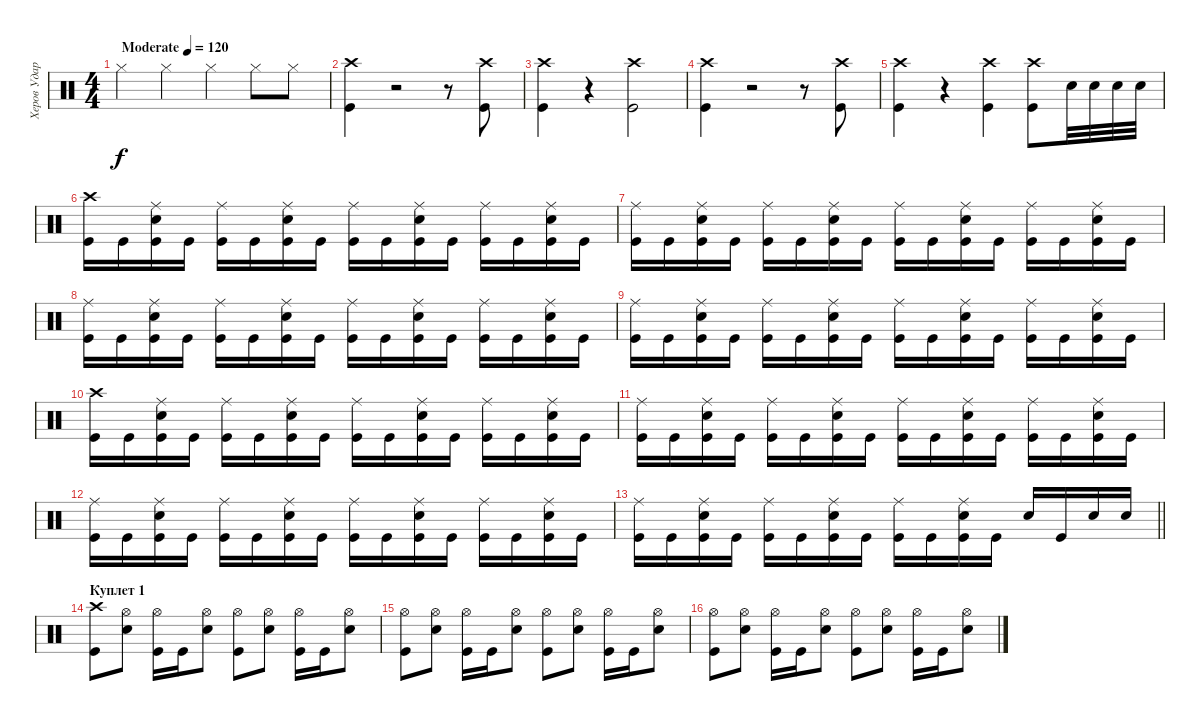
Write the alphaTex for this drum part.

\track ("Херов Ударник" "Херов Удар") {instrument percussion}
\staff {score}
\articulation defaults
\ts (4 4)
\tempo (120 "Moderate")
\clef neutral
\ks c "Hi-Hat (closed)".4{dy f} "Hi-Hat (closed)".4 "Hi-Hat (closed)".4 "Hi-Hat (closed)".8 "Hi-Hat (closed)".8
|
("Kick (hit)" "Crash high (hit)").4 r.2 r.8 ("Kick (hit)" "Crash high (hit)").8 |
("Kick (hit)" "Crash high (hit)").4 r.4 ("Kick (hit)" "Crash high (hit)").2 |
("Kick (hit)" "Crash high (hit)").4 r.2 r.8 ("Kick (hit)" "Crash high (hit)").8 |
("Kick (hit)" "Crash high (hit)").4 r.4 ("Kick (hit)" "Crash high (hit)").4 ("Kick (hit)" "Crash high (hit)").8 "Electric Snare (hit)".32 "Electric Snare (hit)".32 "Electric Snare (hit)".32 "Electric Snare (hit)".32 |
("Crash high (hit)" "Kick (hit)").16 "Kick (hit)".16 ("Ride (middle)" "Electric Snare (hit)" "Kick (hit)").16 "Kick (hit)".16 ("Ride (middle)" "Kick (hit)").16 "Kick (hit)".16 ("Ride (middle)" "Electric Snare (hit)" "Kick (hit)").16 "Kick (hit)".16 ("Ride (middle)" "Kick (hit)").16 "Kick (hit)".16 ("Ride (middle)" "Electric Snare (hit)" "Kick (hit)").16 "Kick (hit)".16 ("Ride (middle)" "Kick (hit)").16 "Kick (hit)".16 ("Ride (middle)" "Electric Snare (hit)" "Kick (hit)").16 "Kick (hit)".16 |
("Ride (middle)" "Kick (hit)").16 "Kick (hit)".16 ("Ride (middle)" "Electric Snare (hit)" "Kick (hit)").16 "Kick (hit)".16 ("Ride (middle)" "Kick (hit)").16 "Kick (hit)".16 ("Ride (middle)" "Electric Snare (hit)" "Kick (hit)").16 "Kick (hit)".16 ("Ride (middle)" "Kick (hit)").16 "Kick (hit)".16 ("Ride (middle)" "Electric Snare (hit)" "Kick (hit)").16 "Kick (hit)".16 ("Ride (middle)" "Kick (hit)").16 "Kick (hit)".16 ("Ride (middle)" "Electric Snare (hit)" "Kick (hit)").16 "Kick (hit)".16 |
("Ride (middle)" "Kick (hit)").16 "Kick (hit)".16 ("Ride (middle)" "Electric Snare (hit)" "Kick (hit)").16 "Kick (hit)".16 ("Ride (middle)" "Kick (hit)").16 "Kick (hit)".16 ("Ride (middle)" "Electric Snare (hit)" "Kick (hit)").16 "Kick (hit)".16 ("Ride (middle)" "Kick (hit)").16 "Kick (hit)".16 ("Ride (middle)" "Electric Snare (hit)" "Kick (hit)").16 "Kick (hit)".16 ("Ride (middle)" "Kick (hit)").16 "Kick (hit)".16 ("Ride (middle)" "Electric Snare (hit)" "Kick (hit)").16 "Kick (hit)".16 |
("Ride (middle)" "Kick (hit)").16 "Kick (hit)".16 ("Ride (middle)" "Electric Snare (hit)" "Kick (hit)").16 "Kick (hit)".16 ("Ride (middle)" "Kick (hit)").16 "Kick (hit)".16 ("Ride (middle)" "Electric Snare (hit)" "Kick (hit)").16 "Kick (hit)".16 ("Ride (middle)" "Kick (hit)").16 "Kick (hit)".16 ("Ride (middle)" "Electric Snare (hit)" "Kick (hit)").16 "Kick (hit)".16 ("Ride (middle)" "Kick (hit)").16 "Kick (hit)".16 ("Ride (middle)" "Electric Snare (hit)" "Kick (hit)").16 "Kick (hit)".16 |
("Crash high (hit)" "Kick (hit)").16 "Kick (hit)".16 ("Ride (middle)" "Electric Snare (hit)" "Kick (hit)").16 "Kick (hit)".16 ("Ride (middle)" "Kick (hit)").16 "Kick (hit)".16 ("Ride (middle)" "Electric Snare (hit)" "Kick (hit)").16 "Kick (hit)".16 ("Ride (middle)" "Kick (hit)").16 "Kick (hit)".16 ("Ride (middle)" "Electric Snare (hit)" "Kick (hit)").16 "Kick (hit)".16 ("Ride (middle)" "Kick (hit)").16 "Kick (hit)".16 ("Ride (middle)" "Electric Snare (hit)" "Kick (hit)").16 "Kick (hit)".16 |
("Ride (middle)" "Kick (hit)").16 "Kick (hit)".16 ("Ride (middle)" "Electric Snare (hit)" "Kick (hit)").16 "Kick (hit)".16 ("Ride (middle)" "Kick (hit)").16 "Kick (hit)".16 ("Ride (middle)" "Electric Snare (hit)" "Kick (hit)").16 "Kick (hit)".16 ("Ride (middle)" "Kick (hit)").16 "Kick (hit)".16 ("Ride (middle)" "Electric Snare (hit)" "Kick (hit)").16 "Kick (hit)".16 ("Ride (middle)" "Kick (hit)").16 "Kick (hit)".16 ("Ride (middle)" "Electric Snare (hit)" "Kick (hit)").16 "Kick (hit)".16 |
("Ride (middle)" "Kick (hit)").16 "Kick (hit)".16 ("Ride (middle)" "Electric Snare (hit)" "Kick (hit)").16 "Kick (hit)".16 ("Ride (middle)" "Kick (hit)").16 "Kick (hit)".16 ("Ride (middle)" "Electric Snare (hit)" "Kick (hit)").16 "Kick (hit)".16 ("Ride (middle)" "Kick (hit)").16 "Kick (hit)".16 ("Ride (middle)" "Electric Snare (hit)" "Kick (hit)").16 "Kick (hit)".16 ("Ride (middle)" "Kick (hit)").16 "Kick (hit)".16 ("Ride (middle)" "Electric Snare (hit)" "Kick (hit)").16 "Kick (hit)".16 |
\barLineRight lightlight
("Ride (middle)" "Kick (hit)").16 "Kick (hit)".16 ("Ride (middle)" "Electric Snare (hit)" "Kick (hit)").16 "Kick (hit)".16 ("Ride (middle)" "Kick (hit)").16 "Kick (hit)".16 ("Ride (middle)" "Electric Snare (hit)" "Kick (hit)").16 "Kick (hit)".16 ("Ride (middle)" "Kick (hit)").16 "Kick (hit)".16 ("Ride (middle)" "Electric Snare (hit)" "Kick (hit)").16 "Kick (hit)".16 "Electric Snare (hit)".16 "Kick (hit)".16 "Electric Snare (hit)".16 "Electric Snare (hit)".16 |
\section ("" "Куплет 1")
("Crash high (hit)" "Kick (hit)").8 ("Hi-Hat (open)" "Electric Snare (hit)").8 ("Hi-Hat (open)" "Kick (hit)").16 "Kick (hit)".16 ("Hi-Hat (open)" "Electric Snare (hit)").8 ("Hi-Hat (open)" "Kick (hit)").8 ("Hi-Hat (open)" "Electric Snare (hit)").8 ("Hi-Hat (open)" "Kick (hit)").16 "Kick (hit)".16 ("Hi-Hat (open)" "Electric Snare (hit)").8 |
("Hi-Hat (open)" "Kick (hit)").8 ("Hi-Hat (open)" "Electric Snare (hit)").8 ("Hi-Hat (open)" "Kick (hit)").16 "Kick (hit)".16 ("Hi-Hat (open)" "Electric Snare (hit)").8 ("Hi-Hat (open)" "Kick (hit)").8 ("Hi-Hat (open)" "Electric Snare (hit)").8 ("Hi-Hat (open)" "Kick (hit)").16 "Kick (hit)".16 ("Hi-Hat (open)" "Electric Snare (hit)").8 |
("Hi-Hat (open)" "Kick (hit)").8 ("Hi-Hat (open)" "Electric Snare (hit)").8 ("Hi-Hat (open)" "Kick (hit)").16 "Kick (hit)".16 ("Hi-Hat (open)" "Electric Snare (hit)").8 ("Hi-Hat (open)" "Kick (hit)").8 ("Hi-Hat (open)" "Electric Snare (hit)").8 ("Hi-Hat (open)" "Kick (hit)").16 "Kick (hit)".16 ("Hi-Hat (open)" "Electric Snare (hit)").8
